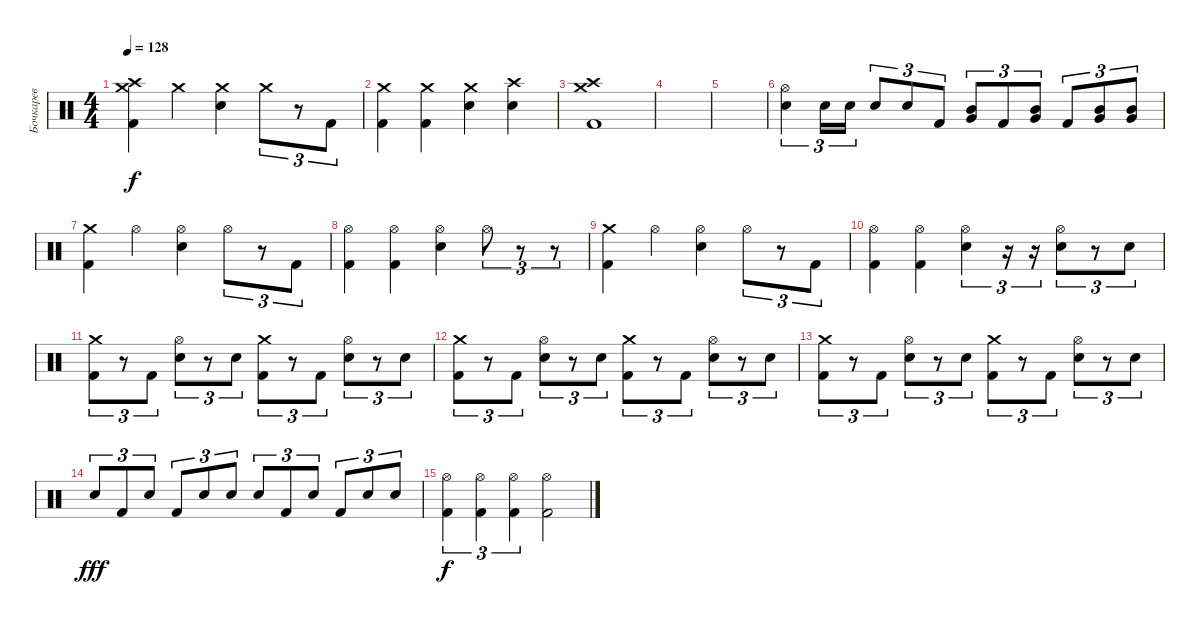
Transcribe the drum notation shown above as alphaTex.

\track ("Бочкарев" "Бочкарев") {instrument percussion}
\staff
\articulation defaults
\ts (4 4)
\tempo 128
\clef neutral
\ks c
("Crash high (hit)" "Crash medium (hit)" "Kick (hit) 2").4{dy f} "Crash medium (hit)".4 ("Crash medium (hit)" "Electric Snare (hit)").4 "Crash medium (hit)".8{tu (3 2)} r.8{tu (3 2)} "Kick (hit) 2".8{tu (3 2)} |
("Crash medium (hit)" "Kick (hit) 2").4 ("Crash medium (hit)" "Kick (hit) 2").4 ("Crash medium (hit)" "Electric Snare (hit)").4 ("Crash high (hit)" "Electric Snare (hit)").4 |
("Crash high (hit)" "Crash medium (hit)" "Kick (hit) 2").1 |
|
|
("Hi-Hat (open)" "Electric Snare (hit)").4{tu (3 2)} "Electric Snare (hit)".16{tu (3 2)} "Electric Snare (hit)".16{tu (3 2)} "Electric Snare (hit)".8{tu (3 2)} "Electric Snare (hit)".8{tu (3 2)} "Kick (hit) 2".8{tu (3 2)} ("Very Low Tom (hit)" "Mid Tom (hit)").8{tu (3 2)} "Kick (hit) 2".8{tu (3 2)} ("Very Low Tom (hit)" "Mid Tom (hit)").8{tu (3 2)} "Kick (hit) 2".8{tu (3 2)} ("Very Low Tom (hit)" "Mid Tom (hit)").8{tu (3 2)} ("Very Low Tom (hit)" "Mid Tom (hit)").8{tu (3 2)} |
("Crash medium (hit)" "Kick (hit) 2").4 "Hi-Hat (open)".4 ("Hi-Hat (open)" "Electric Snare (hit)").4 "Hi-Hat (open)".8{tu (3 2)} r.8{tu (3 2)} "Kick (hit) 2".8{tu (3 2)} |
("Hi-Hat (open)" "Kick (hit) 2").4 ("Hi-Hat (open)" "Kick (hit) 2").4 ("Hi-Hat (open)" "Electric Snare (hit)").4 "Hi-Hat (open)".8{tu (3 2)} r.8{tu (3 2)} r.8{tu (3 2)} |
("Crash medium (hit)" "Kick (hit) 2").4 "Hi-Hat (open)".4 ("Hi-Hat (open)" "Electric Snare (hit)").4 "Hi-Hat (open)".8{tu (3 2)} r.8{tu (3 2)} "Kick (hit) 2".8{tu (3 2)} |
("Hi-Hat (open)" "Kick (hit) 2").4 ("Hi-Hat (open)" "Kick (hit) 2").4 ("Hi-Hat (open)" "Electric Snare (hit)").4{tu (3 2)} r.16{tu (3 2)} r.16{tu (3 2)} ("Hi-Hat (open)" "Electric Snare (hit)").8{tu (3 2)} r.8{tu (3 2)} "Electric Snare (hit)".8{tu (3 2)} |
("Crash medium (hit)" "Kick (hit) 2").8{tu (3 2)} r.8{tu (3 2)} "Kick (hit) 2".8{tu (3 2)} ("Hi-Hat (open)" "Electric Snare (hit)").8{tu (3 2)} r.8{tu (3 2)} "Electric Snare (hit)".8{tu (3 2)} ("Crash medium (hit)" "Kick (hit) 2").8{tu (3 2)} r.8{tu (3 2)} "Kick (hit) 2".8{tu (3 2)} ("Hi-Hat (open)" "Electric Snare (hit)").8{tu (3 2)} r.8{tu (3 2)} "Electric Snare (hit)".8{tu (3 2)} |
("Crash medium (hit)" "Kick (hit) 2").8{tu (3 2)} r.8{tu (3 2)} "Kick (hit) 2".8{tu (3 2)} ("Hi-Hat (open)" "Electric Snare (hit)").8{tu (3 2)} r.8{tu (3 2)} "Electric Snare (hit)".8{tu (3 2)} ("Crash medium (hit)" "Kick (hit) 2").8{tu (3 2)} r.8{tu (3 2)} "Kick (hit) 2".8{tu (3 2)} ("Hi-Hat (open)" "Electric Snare (hit)").8{tu (3 2)} r.8{tu (3 2)} "Electric Snare (hit)".8{tu (3 2)} |
("Crash medium (hit)" "Kick (hit) 2").8{tu (3 2)} r.8{tu (3 2)} "Kick (hit) 2".8{tu (3 2)} ("Hi-Hat (open)" "Electric Snare (hit)").8{tu (3 2)} r.8{tu (3 2)} "Electric Snare (hit)".8{tu (3 2)} ("Crash medium (hit)" "Kick (hit) 2").8{tu (3 2)} r.8{tu (3 2)} "Kick (hit) 2".8{tu (3 2)} ("Hi-Hat (open)" "Electric Snare (hit)").8{tu (3 2)} r.8{tu (3 2)} "Electric Snare (hit)".8{tu (3 2)} |
"Electric Snare (hit)".8{tu (3 2) dy fff} "Kick (hit) 2".8{tu (3 2)} "Electric Snare (hit)".8{tu (3 2)} "Kick (hit) 2".8{tu (3 2)} "Electric Snare (hit)".8{tu (3 2)} "Electric Snare (hit)".8{tu (3 2)} "Electric Snare (hit)".8{tu (3 2)} "Kick (hit) 2".8{tu (3 2)} "Electric Snare (hit)".8{tu (3 2)} "Kick (hit) 2".8{tu (3 2)} "Electric Snare (hit)".8{tu (3 2)} "Electric Snare (hit)".8{tu (3 2)} |
("Hi-Hat (open)" "Kick (hit) 2").4{tu (3 2) dy f} ("Hi-Hat (open)" "Kick (hit) 2").4{tu (3 2)} ("Hi-Hat (open)" "Kick (hit) 2").4{tu (3 2)} ("Hi-Hat (open)" "Kick (hit) 2").2
